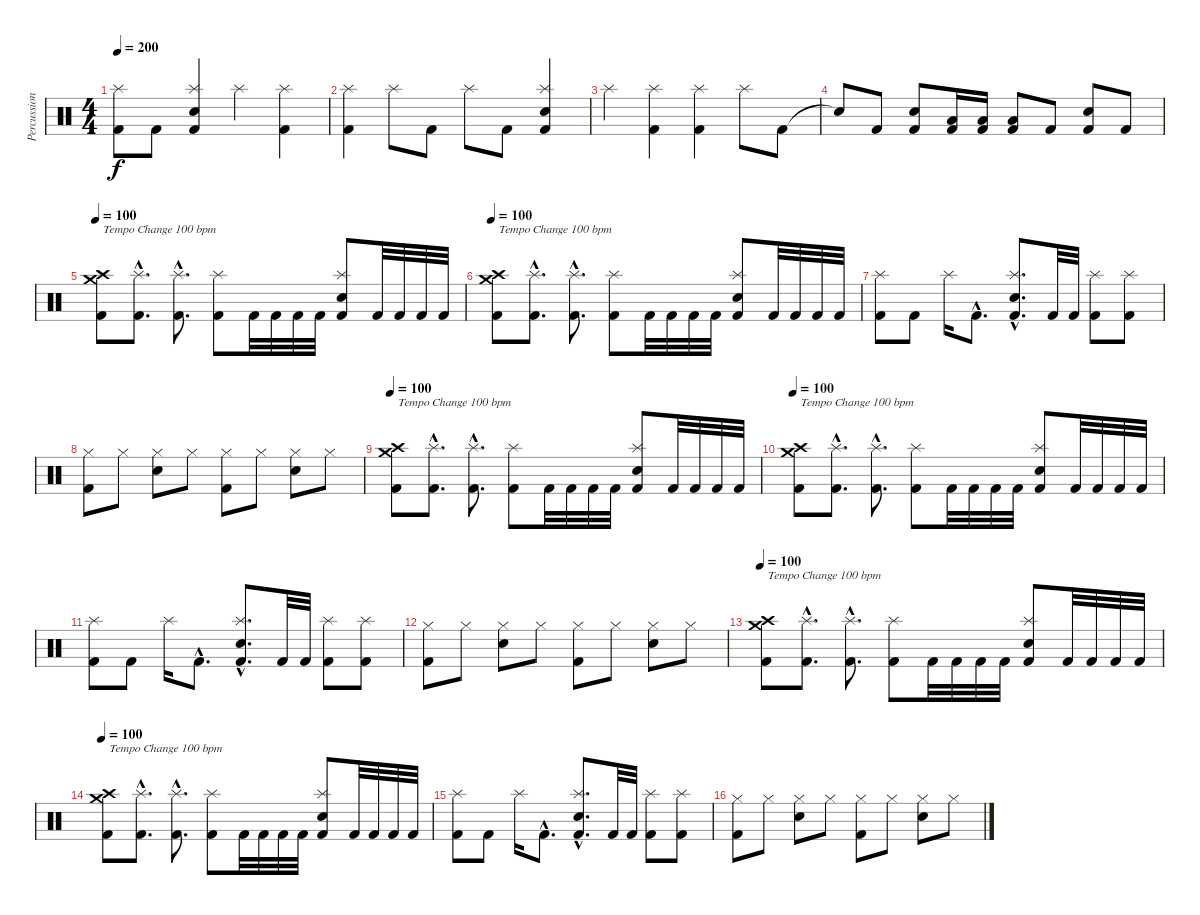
\track ("Percussion" "Percussion") {instrument percussion}
\staff {score}
\articulation defaults
\ts (4 4)
\tempo 200
\clef neutral
\ks c
("Kick (hit) 2" "Splash (hit)").8{dy f} "Kick (hit) 2".8 ("Kick (hit) 2" "Snare (hit) 2" "Splash (hit)").4 "Splash (hit)".4 ("Kick (hit) 2" "Splash (hit)").4 |
("Kick (hit) 2" "Splash (hit)").4 "Splash (hit)".8 "Kick (hit) 2".8 "Splash (hit)".8 "Kick (hit) 2".8 ("Kick (hit) 2" "Splash (hit)" "Snare (hit) 2").4 |
"Splash (hit)".4 ("Kick (hit) 2" "Splash (hit)").4 ("Kick (hit) 2" "Splash (hit)").4 "Splash (hit)".8 "Kick (hit) 2".8 |
"Snare (hit)"{t}.8 "Kick (hit) 2".8 ("Kick (hit) 2" "Snare (hit) 2").8 ("Kick (hit) 2" "Low Tom (hit)").16 ("Kick (hit) 2" "Low Tom (hit)").16 ("Kick (hit) 2" "Low Tom (hit)").8 "Kick (hit) 2".8 ("Kick (hit) 2" "Snare (hit) 2").8 "Kick (hit) 2".8 |
\tempo 100
("Kick (hit) 2" "Crash high (hit)" "Crash medium (hit)").8{txt "Tempo Change 100 bpm"} ("Kick (hit) 2"{hac} "Splash (hit)"{hac}).8{d} ("Kick (hit) 2"{hac} "Splash (hit)"{hac}).8{d} ("Kick (hit) 2" "Splash (hit)").8 "Kick (hit) 2".32 "Kick (hit) 2".32 "Kick (hit) 2".32 "Kick (hit) 2".32 ("Kick (hit) 2" "Splash (hit)" "Snare (hit) 2").8 "Kick (hit) 2".32 "Kick (hit) 2".32 "Kick (hit) 2".32 "Kick (hit) 2".32 |
\tempo 100
("Kick (hit) 2" "Crash high (hit)" "Crash medium (hit)").8{txt "Tempo Change 100 bpm"} ("Kick (hit) 2"{hac} "Splash (hit)"{hac}).8{d} ("Kick (hit) 2"{hac} "Splash (hit)"{hac}).8{d} ("Kick (hit) 2" "Splash (hit)").8 "Kick (hit) 2".32 "Kick (hit) 2".32 "Kick (hit) 2".32 "Kick (hit) 2".32 ("Kick (hit) 2" "Splash (hit)" "Snare (hit) 2").8 "Kick (hit) 2".32 "Kick (hit) 2".32 "Kick (hit) 2".32 "Kick (hit) 2".32 |
("Kick (hit) 2" "Splash (hit)").8 "Kick (hit) 2".8 "Splash (hit)".16 "Kick (hit) 2"{hac}.8{d} ("Kick (hit) 2"{hac} "Splash (hit)"{hac} "Snare (hit) 2"{hac}).8{d} "Kick (hit) 2".32 "Kick (hit) 2".32 ("Kick (hit) 2" "Splash (hit)").8 ("Kick (hit) 2" "Splash (hit)").8 |
("Kick (hit) 2" "Hi-Hat (closed)").8 "Hi-Hat (closed)".8 ("Hi-Hat (closed)" "Snare (hit) 2").8 "Hi-Hat (closed)".8 ("Kick (hit) 2" "Hi-Hat (closed)").8 "Hi-Hat (closed)".8 ("Hi-Hat (closed)" "Snare (hit) 2").8 "Hi-Hat (closed)".8 |
\tempo 100
("Kick (hit) 2" "Crash high (hit)" "Crash medium (hit)").8{txt "Tempo Change 100 bpm"} ("Kick (hit) 2"{hac} "Splash (hit)"{hac}).8{d} ("Kick (hit) 2"{hac} "Splash (hit)"{hac}).8{d} ("Kick (hit) 2" "Splash (hit)").8 "Kick (hit) 2".32 "Kick (hit) 2".32 "Kick (hit) 2".32 "Kick (hit) 2".32 ("Kick (hit) 2" "Splash (hit)" "Snare (hit) 2").8 "Kick (hit) 2".32 "Kick (hit) 2".32 "Kick (hit) 2".32 "Kick (hit) 2".32 |
\tempo 100
("Kick (hit) 2" "Crash high (hit)" "Crash medium (hit)").8{txt "Tempo Change 100 bpm"} ("Kick (hit) 2"{hac} "Splash (hit)"{hac}).8{d} ("Kick (hit) 2"{hac} "Splash (hit)"{hac}).8{d} ("Kick (hit) 2" "Splash (hit)").8 "Kick (hit) 2".32 "Kick (hit) 2".32 "Kick (hit) 2".32 "Kick (hit) 2".32 ("Kick (hit) 2" "Splash (hit)" "Snare (hit) 2").8 "Kick (hit) 2".32 "Kick (hit) 2".32 "Kick (hit) 2".32 "Kick (hit) 2".32 |
("Kick (hit) 2" "Splash (hit)").8 "Kick (hit) 2".8 "Splash (hit)".16 "Kick (hit) 2"{hac}.8{d} ("Kick (hit) 2"{hac} "Splash (hit)"{hac} "Snare (hit) 2"{hac}).8{d} "Kick (hit) 2".32 "Kick (hit) 2".32 ("Kick (hit) 2" "Splash (hit)").8 ("Kick (hit) 2" "Splash (hit)").8 |
("Kick (hit) 2" "Hi-Hat (closed)").8 "Hi-Hat (closed)".8 ("Hi-Hat (closed)" "Snare (hit) 2").8 "Hi-Hat (closed)".8 ("Kick (hit) 2" "Hi-Hat (closed)").8 "Hi-Hat (closed)".8 ("Hi-Hat (closed)" "Snare (hit) 2").8 "Hi-Hat (closed)".8 |
\tempo 100
("Kick (hit) 2" "Crash high (hit)" "Crash medium (hit)").8{txt "Tempo Change 100 bpm"} ("Kick (hit) 2"{hac} "Splash (hit)"{hac}).8{d} ("Kick (hit) 2"{hac} "Splash (hit)"{hac}).8{d} ("Kick (hit) 2" "Splash (hit)").8 "Kick (hit) 2".32 "Kick (hit) 2".32 "Kick (hit) 2".32 "Kick (hit) 2".32 ("Kick (hit) 2" "Splash (hit)" "Snare (hit) 2").8 "Kick (hit) 2".32 "Kick (hit) 2".32 "Kick (hit) 2".32 "Kick (hit) 2".32 |
\tempo 100
("Kick (hit) 2" "Crash high (hit)" "Crash medium (hit)").8{txt "Tempo Change 100 bpm"} ("Kick (hit) 2"{hac} "Splash (hit)"{hac}).8{d} ("Kick (hit) 2"{hac} "Splash (hit)"{hac}).8{d} ("Kick (hit) 2" "Splash (hit)").8 "Kick (hit) 2".32 "Kick (hit) 2".32 "Kick (hit) 2".32 "Kick (hit) 2".32 ("Kick (hit) 2" "Splash (hit)" "Snare (hit) 2").8 "Kick (hit) 2".32 "Kick (hit) 2".32 "Kick (hit) 2".32 "Kick (hit) 2".32 |
("Kick (hit) 2" "Splash (hit)").8 "Kick (hit) 2".8 "Splash (hit)".16 "Kick (hit) 2"{hac}.8{d} ("Kick (hit) 2"{hac} "Splash (hit)"{hac} "Snare (hit) 2"{hac}).8{d} "Kick (hit) 2".32 "Kick (hit) 2".32 ("Kick (hit) 2" "Splash (hit)").8 ("Kick (hit) 2" "Splash (hit)").8 |
("Kick (hit) 2" "Hi-Hat (closed)").8 "Hi-Hat (closed)".8 ("Hi-Hat (closed)" "Snare (hit) 2").8 "Hi-Hat (closed)".8 ("Kick (hit) 2" "Hi-Hat (closed)").8 "Hi-Hat (closed)".8 ("Hi-Hat (closed)" "Snare (hit) 2").8 "Hi-Hat (closed)".8
